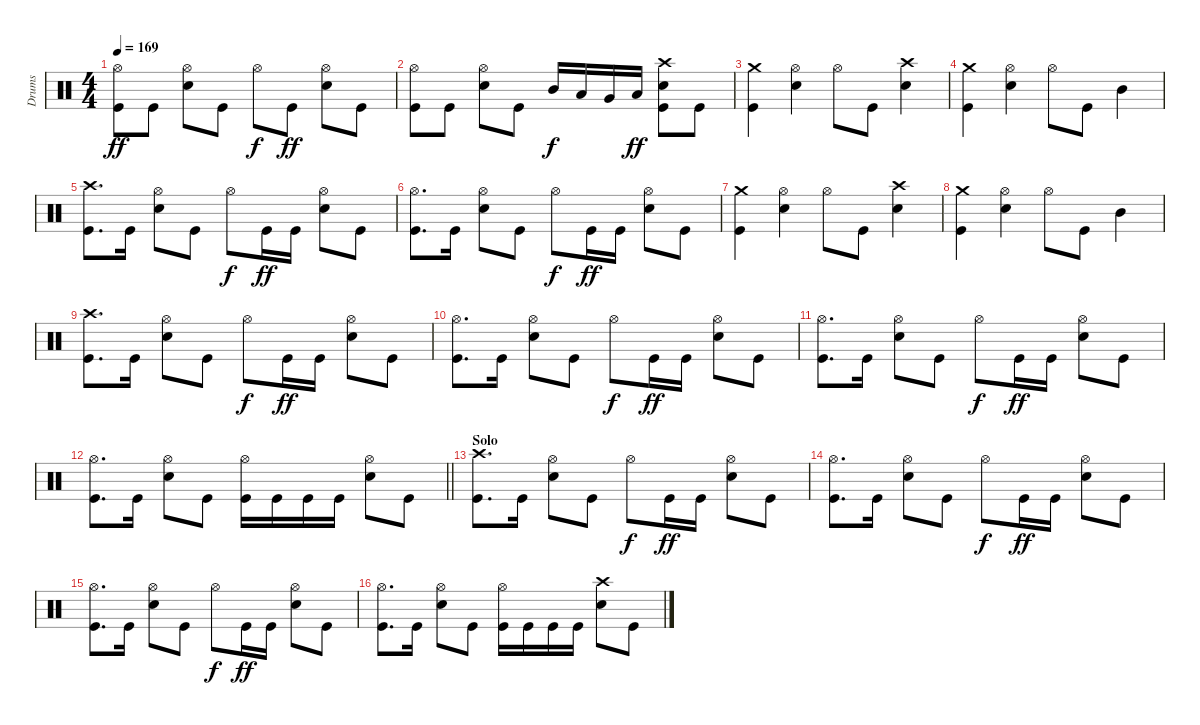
\track ("Drums" "Drums") {instrument percussion}
\staff {score}
\articulation defaults
\ts (4 4)
\tempo 169
\clef neutral
\ks c
("Hi-Hat (open)" "Kick (hit)").8{dy ff} "Kick (hit)".8 ("Hi-Hat (open)" "Electric Snare (hit)").8 "Kick (hit)".8 "Hi-Hat (open)".8{dy f} "Kick (hit)".8{dy ff} ("Hi-Hat (open)" "Electric Snare (hit)").8 "Kick (hit)".8 |
("Hi-Hat (open)" "Kick (hit)").8 "Kick (hit)".8 ("Hi-Hat (open)" "Electric Snare (hit)").8 "Kick (hit)".8 "Mid Tom (hit)".16{dy f} "Low Tom (hit)".16 "Very Low Tom (hit)".16 "Low Floor Tom (hit)".16{dy ff} ("Crash high (hit)" "Electric Snare (hit)" "Kick (hit)").8 "Kick (hit)".8 |
("Crash medium (hit)" "Kick (hit)").4 ("Hi-Hat (open)" "Electric Snare (hit)").4 "Hi-Hat (open)".8 "Kick (hit)".8 ("Crash high (hit)" "Electric Snare (hit)").4 |
("Crash medium (hit)" "Kick (hit)").4 ("Hi-Hat (open)" "Electric Snare (hit)").4 "Hi-Hat (open)".8 "Kick (hit)".8 "Mid Tom (hit)".4 |
("Crash high (hit)" "Kick (hit)").8{d} "Kick (hit)".16 ("Hi-Hat (open)" "Electric Snare (hit)").8 "Kick (hit)".8 "Hi-Hat (open)".8{dy f} "Kick (hit)".16{dy ff} "Kick (hit)".16 ("Hi-Hat (open)" "Electric Snare (hit)").8 "Kick (hit)".8 |
("Hi-Hat (open)" "Kick (hit)").8{d} "Kick (hit)".16 ("Hi-Hat (open)" "Electric Snare (hit)").8 "Kick (hit)".8 "Hi-Hat (open)".8{dy f} "Kick (hit)".16{dy ff} "Kick (hit)".16 ("Hi-Hat (open)" "Electric Snare (hit)").8 "Kick (hit)".8 |
("Crash medium (hit)" "Kick (hit)").4 ("Hi-Hat (open)" "Electric Snare (hit)").4 "Hi-Hat (open)".8 "Kick (hit)".8 ("Crash high (hit)" "Electric Snare (hit)").4 |
("Crash medium (hit)" "Kick (hit)").4 ("Hi-Hat (open)" "Electric Snare (hit)").4 "Hi-Hat (open)".8 "Kick (hit)".8 "Mid Tom (hit)".4 |
("Crash high (hit)" "Kick (hit)").8{d} "Kick (hit)".16 ("Hi-Hat (open)" "Electric Snare (hit)").8 "Kick (hit)".8 "Hi-Hat (open)".8{dy f} "Kick (hit)".16{dy ff} "Kick (hit)".16 ("Hi-Hat (open)" "Electric Snare (hit)").8 "Kick (hit)".8 |
("Hi-Hat (open)" "Kick (hit)").8{d} "Kick (hit)".16 ("Hi-Hat (open)" "Electric Snare (hit)").8 "Kick (hit)".8 "Hi-Hat (open)".8{dy f} "Kick (hit)".16{dy ff} "Kick (hit)".16 ("Hi-Hat (open)" "Electric Snare (hit)").8 "Kick (hit)".8 |
("Hi-Hat (open)" "Kick (hit)").8{d} "Kick (hit)".16 ("Hi-Hat (open)" "Electric Snare (hit)").8 "Kick (hit)".8 "Hi-Hat (open)".8{dy f} "Kick (hit)".16{dy ff} "Kick (hit)".16 ("Hi-Hat (open)" "Electric Snare (hit)").8 "Kick (hit)".8 |
\barLineRight lightlight
("Hi-Hat (open)" "Kick (hit)").8{d} "Kick (hit)".16 ("Hi-Hat (open)" "Electric Snare (hit)").8 "Kick (hit)".8 ("Hi-Hat (open)" "Kick (hit)").16 "Kick (hit)".16 "Kick (hit)".16 "Kick (hit)".16 ("Hi-Hat (open)" "Electric Snare (hit)").8 "Kick (hit)".8 |
\section ("" "Solo")
("Crash high (hit)" "Kick (hit)").8{d} "Kick (hit)".16 ("Hi-Hat (open)" "Electric Snare (hit)").8 "Kick (hit)".8 "Hi-Hat (open)".8{dy f} "Kick (hit)".16{dy ff} "Kick (hit)".16 ("Hi-Hat (open)" "Electric Snare (hit)").8 "Kick (hit)".8 |
("Hi-Hat (open)" "Kick (hit)").8{d} "Kick (hit)".16 ("Hi-Hat (open)" "Electric Snare (hit)").8 "Kick (hit)".8 "Hi-Hat (open)".8{dy f} "Kick (hit)".16{dy ff} "Kick (hit)".16 ("Hi-Hat (open)" "Electric Snare (hit)").8 "Kick (hit)".8 |
("Hi-Hat (open)" "Kick (hit)").8{d} "Kick (hit)".16 ("Hi-Hat (open)" "Electric Snare (hit)").8 "Kick (hit)".8 "Hi-Hat (open)".8{dy f} "Kick (hit)".16{dy ff} "Kick (hit)".16 ("Hi-Hat (open)" "Electric Snare (hit)").8 "Kick (hit)".8 |
("Hi-Hat (open)" "Kick (hit)").8{d} "Kick (hit)".16 ("Hi-Hat (open)" "Electric Snare (hit)").8 "Kick (hit)".8 ("Hi-Hat (open)" "Kick (hit)").16 "Kick (hit)".16 "Kick (hit)".16 "Kick (hit)".16 ("Crash high (hit)" "Electric Snare (hit)").8 "Kick (hit)".8
